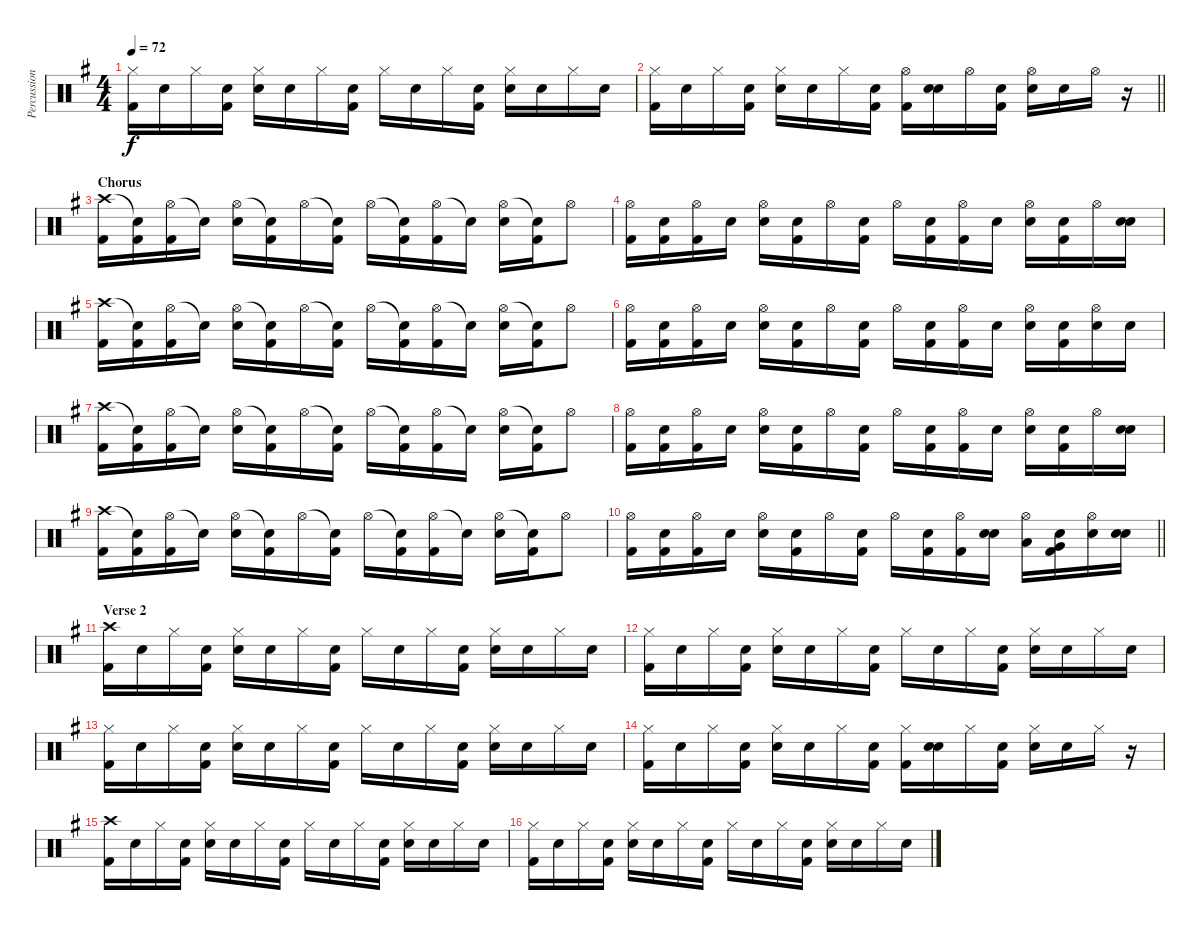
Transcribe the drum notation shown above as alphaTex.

\track ("Percussion" "Percussion") {instrument percussion}
\staff {score}
\articulation defaults
\ts (4 4)
\tempo 72
\clef neutral
\ks g
("Hi-Hat (closed)" "Kick (hit) 2").16{dy f} "Snare (hit)".16 "Hi-Hat (closed)".16 ("Snare (hit)" "Kick (hit) 2").16 ("Hi-Hat (closed)" "Snare (hit) 2").16 "Snare (hit)".16 "Hi-Hat (closed)".16 ("Snare (hit)" "Kick (hit) 2").16 "Hi-Hat (closed)".16 "Snare (hit)".16 "Hi-Hat (closed)".16 ("Snare (hit)" "Kick (hit) 2").16 ("Hi-Hat (closed)" "Snare (hit) 2").16 "Snare (hit)".16 "Hi-Hat (closed)".16 "Snare (hit)".16 |
\barLineRight lightlight
("Hi-Hat (closed)" "Kick (hit) 2").16 "Snare (hit)".16 "Hi-Hat (closed)".16 ("Snare (hit)" "Kick (hit) 2").16 ("Hi-Hat (closed)" "Snare (hit) 2").16 "Snare (hit)".16 "Hi-Hat (closed)".16 ("Snare (hit)" "Kick (hit) 2").16 ("Hi-Hat (open)" "Kick (hit) 2").16 ("Snare (hit)" "Snare (hit) 2").16 "Hi-Hat (open)".16 ("Snare (hit)" "Kick (hit) 2").16 ("Hi-Hat (open)" "Snare (hit) 2").16 "Snare (hit)".16 "Hi-Hat (open)".16 r.16 |
\section ("" "Chorus")
("Crash high (hit)" "Kick (hit) 2").16 ("Snare (hit)"{t} "Kick (hit) 2").16 ("Hi-Hat (open)" "Kick (hit) 2").16 "Snare (hit)"{t}.16 ("Hi-Hat (open)" "Electric Snare (hit)").16 ("Snare (hit)"{t} "Kick (hit) 2").16 "Hi-Hat (open)".16 ("Snare (hit)"{t} "Kick (hit) 2").16 "Hi-Hat (open)".16 ("Snare (hit)"{t} "Kick (hit) 2").16 ("Hi-Hat (open)" "Kick (hit) 2").16 "Snare (hit)"{t}.16 ("Hi-Hat (open)" "Electric Snare (hit)").16 ("Snare (hit)"{t} "Kick (hit) 2").16 "Hi-Hat (open)".8 |
("Hi-Hat (open)" "Kick (hit) 2").16 ("Snare (hit)" "Kick (hit) 2").16 ("Hi-Hat (open)" "Kick (hit) 2").16 "Snare (hit)".16 ("Hi-Hat (open)" "Electric Snare (hit)").16 ("Snare (hit)" "Kick (hit) 2").16 "Hi-Hat (open)".16 ("Snare (hit)" "Kick (hit) 2").16 "Hi-Hat (open)".16 ("Snare (hit)" "Kick (hit) 2").16 ("Hi-Hat (open)" "Kick (hit) 2").16 "Snare (hit)".16 ("Hi-Hat (open)" "Electric Snare (hit)").16 ("Snare (hit)" "Kick (hit) 2").16 "Hi-Hat (open)".16 ("Snare (hit)" "Electric Snare (hit)").16 |
("Crash high (hit)" "Kick (hit) 2").16 ("Snare (hit)"{t} "Kick (hit) 2").16 ("Hi-Hat (open)" "Kick (hit) 2").16 "Snare (hit)"{t}.16 ("Hi-Hat (open)" "Electric Snare (hit)").16 ("Snare (hit)"{t} "Kick (hit) 2").16 "Hi-Hat (open)".16 ("Snare (hit)"{t} "Kick (hit) 2").16 "Hi-Hat (open)".16 ("Snare (hit)"{t} "Kick (hit) 2").16 ("Hi-Hat (open)" "Kick (hit) 2").16 "Snare (hit)"{t}.16 ("Hi-Hat (open)" "Electric Snare (hit)").16 ("Snare (hit)"{t} "Kick (hit) 2").16 "Hi-Hat (open)".8 |
("Hi-Hat (open)" "Kick (hit) 2").16 ("Snare (hit)" "Kick (hit) 2").16 ("Hi-Hat (open)" "Kick (hit) 2").16 "Snare (hit)".16 ("Hi-Hat (open)" "Electric Snare (hit)").16 ("Snare (hit)" "Kick (hit) 2").16 "Hi-Hat (open)".16 ("Snare (hit)" "Kick (hit) 2").16 "Hi-Hat (open)".16 ("Snare (hit)" "Kick (hit) 2").16 ("Hi-Hat (open)" "Kick (hit) 2").16 "Snare (hit)".16 ("Hi-Hat (open)" "Electric Snare (hit)").16 ("Snare (hit)" "Kick (hit) 2").16 ("Hi-Hat (open)" "Electric Snare (hit)").16 "Snare (hit)".16 |
("Crash high (hit)" "Kick (hit) 2").16 ("Snare (hit)"{t} "Kick (hit) 2").16 ("Hi-Hat (open)" "Kick (hit) 2").16 "Snare (hit)"{t}.16 ("Hi-Hat (open)" "Electric Snare (hit)").16 ("Snare (hit)"{t} "Kick (hit) 2").16 "Hi-Hat (open)".16 ("Snare (hit)"{t} "Kick (hit) 2").16 "Hi-Hat (open)".16 ("Snare (hit)"{t} "Kick (hit) 2").16 ("Hi-Hat (open)" "Kick (hit) 2").16 "Snare (hit)"{t}.16 ("Hi-Hat (open)" "Electric Snare (hit)").16 ("Snare (hit)"{t} "Kick (hit) 2").16 "Hi-Hat (open)".8 |
("Hi-Hat (open)" "Kick (hit) 2").16 ("Snare (hit)" "Kick (hit) 2").16 ("Hi-Hat (open)" "Kick (hit) 2").16 "Snare (hit)".16 ("Hi-Hat (open)" "Electric Snare (hit)").16 ("Snare (hit)" "Kick (hit) 2").16 "Hi-Hat (open)".16 ("Snare (hit)" "Kick (hit) 2").16 "Hi-Hat (open)".16 ("Snare (hit)" "Kick (hit) 2").16 ("Hi-Hat (open)" "Kick (hit) 2").16 "Snare (hit)".16 ("Hi-Hat (open)" "Electric Snare (hit)").16 ("Snare (hit)" "Kick (hit) 2").16 "Hi-Hat (open)".16 ("Snare (hit)" "Electric Snare (hit)").16 |
("Crash high (hit)" "Kick (hit) 2").16 ("Snare (hit)"{t} "Kick (hit) 2").16 ("Hi-Hat (open)" "Kick (hit) 2").16 "Snare (hit)"{t}.16 ("Hi-Hat (open)" "Electric Snare (hit)").16 ("Snare (hit)"{t} "Kick (hit) 2").16 "Hi-Hat (open)".16 ("Snare (hit)"{t} "Kick (hit) 2").16 "Hi-Hat (open)".16 ("Snare (hit)"{t} "Kick (hit) 2").16 ("Hi-Hat (open)" "Kick (hit) 2").16 "Snare (hit)"{t}.16 ("Hi-Hat (open)" "Electric Snare (hit)").16 ("Snare (hit)"{t} "Kick (hit) 2").16 "Hi-Hat (open)".8 |
\barLineRight lightlight
("Hi-Hat (open)" "Kick (hit) 2").16 ("Snare (hit)" "Kick (hit) 2").16 ("Hi-Hat (open)" "Kick (hit) 2").16 "Snare (hit)".16 ("Hi-Hat (open)" "Electric Snare (hit)").16 ("Snare (hit)" "Kick (hit) 2").16 "Hi-Hat (open)".16 ("Snare (hit)" "Kick (hit) 2").16 "Hi-Hat (open)".16 ("Snare (hit)" "Kick (hit) 2").16 ("Hi-Hat (open)" "Kick (hit) 2").16 ("Snare (hit)" "Electric Snare (hit)").16 ("Hi-Hat (open)" "Low Tom (hit)").16 ("Snare (hit)" "Very Low Tom (hit)" "Kick (hit) 2").16 ("Hi-Hat (open)" "Electric Snare (hit)").16 ("Snare (hit)" "Electric Snare (hit)").16 |
\section ("" "Verse 2")
("Crash high (hit)" "Kick (hit) 2").16 "Snare (hit)".16 "Hi-Hat (closed)".16 ("Snare (hit)" "Kick (hit) 2").16 ("Hi-Hat (closed)" "Snare (hit) 2").16 "Snare (hit)".16 "Hi-Hat (closed)".16 ("Snare (hit)" "Kick (hit) 2").16 "Hi-Hat (closed)".16 "Snare (hit)".16 "Hi-Hat (closed)".16 ("Snare (hit)" "Kick (hit) 2").16 ("Hi-Hat (closed)" "Snare (hit) 2").16 "Snare (hit)".16 "Hi-Hat (closed)".16 "Snare (hit)".16 |
("Hi-Hat (closed)" "Kick (hit) 2").16 "Snare (hit)".16 "Hi-Hat (closed)".16 ("Snare (hit)" "Kick (hit) 2").16 ("Hi-Hat (closed)" "Snare (hit) 2").16 "Snare (hit)".16 "Hi-Hat (closed)".16 ("Snare (hit)" "Kick (hit) 2").16 "Hi-Hat (closed)".16 "Snare (hit)".16 "Hi-Hat (closed)".16 ("Snare (hit)" "Kick (hit) 2").16 ("Hi-Hat (closed)" "Snare (hit) 2").16 "Snare (hit)".16 "Hi-Hat (closed)".16 "Snare (hit)".16 |
("Hi-Hat (closed)" "Kick (hit) 2").16 "Snare (hit)".16 "Hi-Hat (closed)".16 ("Snare (hit)" "Kick (hit) 2").16 ("Hi-Hat (closed)" "Snare (hit) 2").16 "Snare (hit)".16 "Hi-Hat (closed)".16 ("Snare (hit)" "Kick (hit) 2").16 "Hi-Hat (closed)".16 "Snare (hit)".16 "Hi-Hat (closed)".16 ("Snare (hit)" "Kick (hit) 2").16 ("Hi-Hat (closed)" "Snare (hit) 2").16 "Snare (hit)".16 "Hi-Hat (closed)".16 "Snare (hit)".16 |
("Hi-Hat (closed)" "Kick (hit) 2").16 "Snare (hit)".16 "Hi-Hat (closed)".16 ("Snare (hit)" "Kick (hit) 2").16 ("Hi-Hat (closed)" "Snare (hit) 2").16 "Snare (hit)".16 "Hi-Hat (closed)".16 ("Snare (hit)" "Kick (hit) 2").16 ("Hi-Hat (closed)" "Kick (hit) 2").16 ("Snare (hit)" "Snare (hit) 2").16 "Hi-Hat (closed)".16 ("Snare (hit)" "Kick (hit) 2").16 ("Hi-Hat (closed)" "Snare (hit) 2").16 "Snare (hit)".16 "Hi-Hat (closed)".16 r.16 |
("Crash high (hit)" "Kick (hit) 2").16 "Snare (hit)".16 "Hi-Hat (closed)".16 ("Snare (hit)" "Kick (hit) 2").16 ("Hi-Hat (closed)" "Snare (hit) 2").16 "Snare (hit)".16 "Hi-Hat (closed)".16 ("Snare (hit)" "Kick (hit) 2").16 "Hi-Hat (closed)".16 "Snare (hit)".16 "Hi-Hat (closed)".16 ("Snare (hit)" "Kick (hit) 2").16 ("Hi-Hat (closed)" "Snare (hit) 2").16 "Snare (hit)".16 "Hi-Hat (closed)".16 "Snare (hit)".16 |
("Hi-Hat (closed)" "Kick (hit) 2").16 "Snare (hit)".16 "Hi-Hat (closed)".16 ("Snare (hit)" "Kick (hit) 2").16 ("Hi-Hat (closed)" "Snare (hit) 2").16 "Snare (hit)".16 "Hi-Hat (closed)".16 ("Snare (hit)" "Kick (hit) 2").16 "Hi-Hat (closed)".16 "Snare (hit)".16 "Hi-Hat (closed)".16 ("Snare (hit)" "Kick (hit) 2").16 ("Hi-Hat (closed)" "Snare (hit) 2").16 "Snare (hit)".16 "Hi-Hat (closed)".16 "Snare (hit)".16
